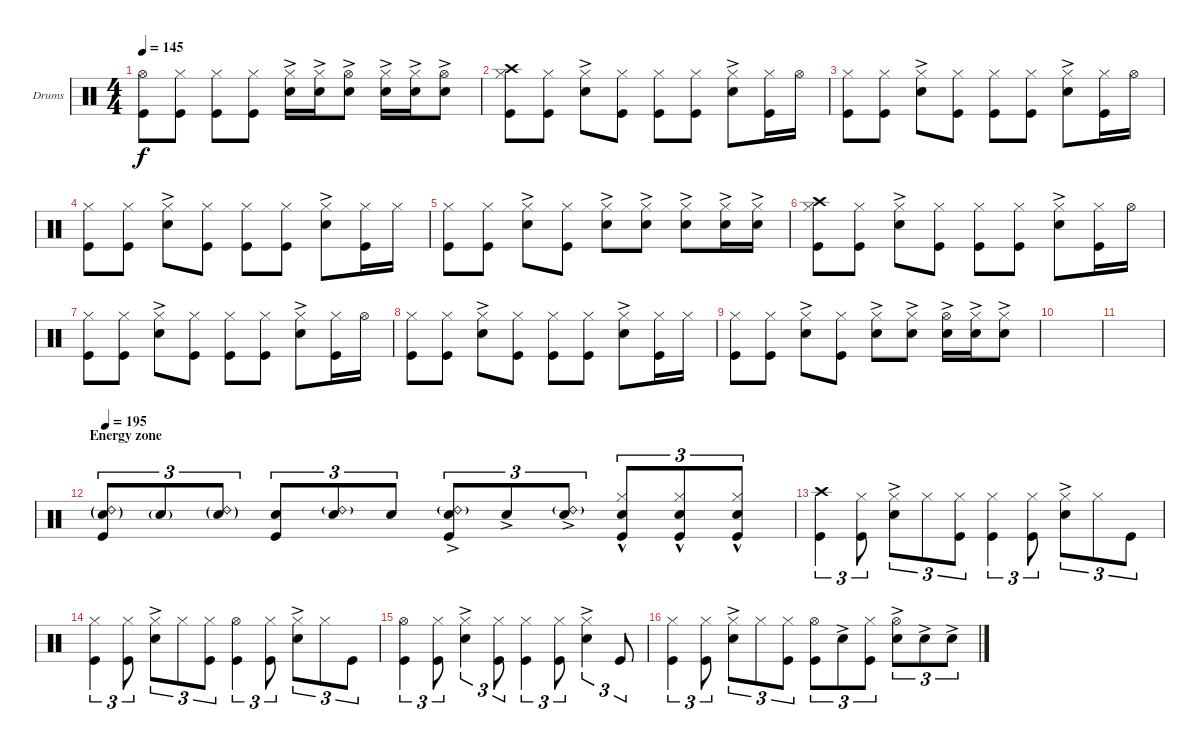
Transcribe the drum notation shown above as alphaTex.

\defaultSystemsLayout 4
\bracketExtendMode groupsimilarinstruments
\firstSystemTrackNameOrientation horizontal
\otherSystemsTrackNameOrientation horizontal
\track ("Drumkit" "Drums") {instrument percussion}
\staff {score}
\articulation defaults
\ts (4 4)
\tempo 145
\clef neutral
\ks c
("Kick (hit)" "Hi-Hat (open)").8{dy f} ("Kick (hit)" "Hi-Hat (closed)").8 ("Kick (hit)" "Hi-Hat (closed)").8 ("Kick (hit)" "Hi-Hat (closed)").8 ("Hi-Hat (closed)" "Snare (hit) 2"{ac}).16 ("Hi-Hat (closed)" "Snare (hit) 2"{ac}).16 ("Hi-Hat (open)" "Snare (hit) 2"{ac}).8 ("Hi-Hat (closed)" "Snare (hit) 2"{ac}).16 ("Hi-Hat (closed)" "Snare (hit) 2"{ac}).16 ("Hi-Hat (open)" "Snare (hit) 2"{ac}).8 |
("Kick (hit)" "Hi-Hat (closed)" "Crash high (hit)").8 ("Kick (hit)" "Hi-Hat (closed)").8 ("Snare (hit) 2"{ac} "Hi-Hat (closed)").8 ("Kick (hit)" "Hi-Hat (closed)").8 ("Kick (hit)" "Hi-Hat (closed)").8 ("Kick (hit)" "Hi-Hat (closed)").8 ("Snare (hit) 2"{ac} "Hi-Hat (closed)").8 ("Kick (hit)" "Hi-Hat (closed)").16 "Hi-Hat (open)".16 |
("Kick (hit)" "Hi-Hat (closed)").8 ("Kick (hit)" "Hi-Hat (closed)").8 ("Snare (hit) 2"{ac} "Hi-Hat (closed)").8 ("Kick (hit)" "Hi-Hat (closed)").8 ("Kick (hit)" "Hi-Hat (closed)").8 ("Kick (hit)" "Hi-Hat (closed)").8 ("Snare (hit) 2"{ac} "Hi-Hat (closed)").8 ("Kick (hit)" "Hi-Hat (closed)").16 "Hi-Hat (open)".16 |
("Kick (hit)" "Hi-Hat (closed)").8 ("Kick (hit)" "Hi-Hat (closed)").8 ("Snare (hit) 2"{ac} "Hi-Hat (closed)").8 ("Kick (hit)" "Hi-Hat (closed)").8 ("Kick (hit)" "Hi-Hat (closed)").8 ("Kick (hit)" "Hi-Hat (closed)").8 ("Snare (hit) 2"{ac} "Hi-Hat (closed)").8 ("Kick (hit)" "Hi-Hat (closed)").16 "Hi-Hat (closed)".16 |
("Kick (hit)" "Hi-Hat (closed)").8 ("Kick (hit)" "Hi-Hat (closed)").8 ("Snare (hit) 2"{ac} "Hi-Hat (closed)").8 ("Kick (hit)" "Hi-Hat (closed)").8 ("Snare (hit) 2"{ac} "Hi-Hat (closed)").8 ("Snare (hit) 2"{ac} "Hi-Hat (closed)").8 ("Snare (hit) 2"{ac} "Hi-Hat (closed)").8 ("Snare (hit) 2"{ac} "Hi-Hat (closed)").16 ("Snare (hit) 2"{ac} "Hi-Hat (closed)").16 |
("Kick (hit)" "Hi-Hat (closed)" "Crash high (hit)").8 ("Kick (hit)" "Hi-Hat (closed)").8 ("Snare (hit) 2"{ac} "Hi-Hat (closed)").8 ("Kick (hit)" "Hi-Hat (closed)").8 ("Kick (hit)" "Hi-Hat (closed)").8 ("Kick (hit)" "Hi-Hat (closed)").8 ("Snare (hit) 2"{ac} "Hi-Hat (closed)").8 ("Kick (hit)" "Hi-Hat (closed)").16 "Hi-Hat (open)".16 |
("Kick (hit)" "Hi-Hat (closed)").8 ("Kick (hit)" "Hi-Hat (closed)").8 ("Snare (hit) 2"{ac} "Hi-Hat (closed)").8 ("Kick (hit)" "Hi-Hat (closed)").8 ("Kick (hit)" "Hi-Hat (closed)").8 ("Kick (hit)" "Hi-Hat (closed)").8 ("Snare (hit) 2"{ac} "Hi-Hat (closed)").8 ("Kick (hit)" "Hi-Hat (closed)").16 "Hi-Hat (open)".16 |
("Kick (hit)" "Hi-Hat (closed)").8 ("Kick (hit)" "Hi-Hat (closed)").8 ("Snare (hit) 2"{ac} "Hi-Hat (closed)").8 ("Kick (hit)" "Hi-Hat (closed)").8 ("Kick (hit)" "Hi-Hat (closed)").8 ("Kick (hit)" "Hi-Hat (closed)").8 ("Snare (hit) 2"{ac} "Hi-Hat (closed)").8 ("Kick (hit)" "Hi-Hat (closed)").16 "Hi-Hat (closed)".16 |
("Kick (hit)" "Hi-Hat (closed)").8 ("Kick (hit)" "Hi-Hat (closed)").8 ("Snare (hit) 2"{ac} "Hi-Hat (closed)").8 ("Kick (hit)" "Hi-Hat (closed)").8 ("Snare (hit) 2"{ac} "Hi-Hat (closed)").8 ("Snare (hit) 2"{ac} "Hi-Hat (closed)").8 ("Snare (hit) 2"{ac} "Hi-Hat (open)").16 ("Snare (hit) 2"{ac} "Hi-Hat (closed)").16 ("Snare (hit) 2"{ac} "Hi-Hat (closed)").8 |
|
|
\section ("" "Energy zone")
\tempo 195
("Snare (hit) 2"{g} "Kick (hit)" "Ride (bell) 2"{g}).8{tu (3 2)} "Snare (hit) 2"{g}.8{tu (3 2)} ("Snare (hit) 2"{g} "Ride (bell) 2"{g}).8{tu (3 2)} ("Snare (hit) 2" "Kick (hit)").8{tu (3 2)} ("Snare (hit) 2" "Ride (bell) 2"{g}).8{tu (3 2)} "Snare (hit) 2".8{tu (3 2)} ("Snare (hit) 2"{ac} "Kick (hit)" "Ride (bell) 2"{g}).8{tu (3 2)} "Snare (hit) 2"{ac}.8{tu (3 2)} ("Snare (hit) 2"{ac} "Ride (bell) 2"{g}).8{tu (3 2)} ("Snare (hit) 2"{hac} "Hi-Hat (closed)" "Kick (hit)").8{tu (3 2)} ("Snare (hit) 2"{hac} "Hi-Hat (closed)" "Kick (hit)").8{tu (3 2)} ("Snare (hit) 2"{hac} "Hi-Hat (closed)" "Kick (hit)").8{tu (3 2)} |
("Kick (hit)" "Crash high (hit)").4{tu (3 2)} ("Kick (hit)" "Hi-Hat (closed)").8{tu (3 2)} ("Snare (hit) 2"{ac} "Hi-Hat (closed)").8{tu (3 2)} "Hi-Hat (closed)".8{tu (3 2)} ("Kick (hit)" "Hi-Hat (closed)").8{tu (3 2)} ("Hi-Hat (closed)" "Kick (hit)").4{tu (3 2)} ("Kick (hit)" "Hi-Hat (closed)").8{tu (3 2)} ("Snare (hit) 2"{ac} "Hi-Hat (closed)").8{tu (3 2)} "Hi-Hat (closed)".8{tu (3 2)} "Kick (hit)".8{tu (3 2)} |
("Kick (hit)" "Hi-Hat (closed)").4{tu (3 2)} ("Kick (hit)" "Hi-Hat (closed)").8{tu (3 2)} ("Snare (hit) 2"{ac} "Hi-Hat (closed)").8{tu (3 2)} "Hi-Hat (closed)".8{tu (3 2)} ("Kick (hit)" "Hi-Hat (closed)").8{tu (3 2)} ("Hi-Hat (open)" "Kick (hit)").4{tu (3 2)} ("Kick (hit)" "Hi-Hat (closed)").8{tu (3 2)} ("Snare (hit) 2"{ac} "Hi-Hat (closed)").8{tu (3 2)} "Hi-Hat (closed)".8{tu (3 2)} "Kick (hit)".8{tu (3 2)} |
("Hi-Hat (open)" "Kick (hit)").4{tu (3 2)} ("Kick (hit)" "Hi-Hat (closed)").8{tu (3 2)} ("Snare (hit) 2"{ac} "Hi-Hat (closed)").4{tu (3 2)} ("Kick (hit)" "Hi-Hat (closed)").8{tu (3 2)} ("Hi-Hat (closed)" "Kick (hit)").4{tu (3 2)} ("Kick (hit)" "Hi-Hat (closed)").8{tu (3 2)} ("Snare (hit) 2"{ac} "Hi-Hat (closed)").4{tu (3 2)} "Kick (hit)".8{tu (3 2)} |
("Kick (hit)" "Hi-Hat (closed)").4{tu (3 2)} ("Kick (hit)" "Hi-Hat (closed)").8{tu (3 2)} ("Snare (hit) 2"{ac} "Hi-Hat (closed)").8{tu (3 2)} "Hi-Hat (closed)".8{tu (3 2)} ("Kick (hit)" "Hi-Hat (closed)").8{tu (3 2)} ("Hi-Hat (open)" "Kick (hit)").8{tu (3 2)} "Snare (hit) 2"{ac}.8{tu (3 2)} ("Kick (hit)" "Hi-Hat (closed)").8{tu (3 2)} ("Snare (hit) 2"{ac} "Hi-Hat (open)").8{tu (3 2)} "Snare (hit) 2"{ac}.8{tu (3 2)} "Snare (hit) 2"{ac}.8{tu (3 2)}
